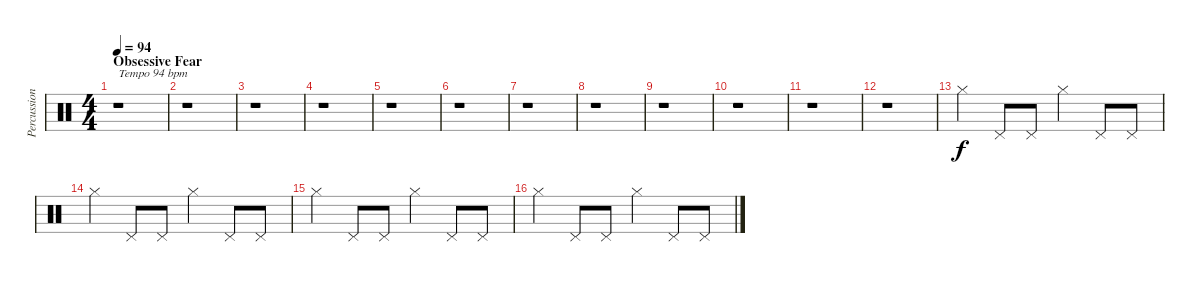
\track ("Percussion" "Percussion") {instrument percussion}
\staff {score}
\articulation defaults
\ts (4 4)
\section ("" "Obsessive Fear")
\tempo 94
\clef neutral
\ks c
r.1{txt "Tempo 94 bpm" dy f} |
r.1 |
r.1 |
r.1 |
r.1 |
r.1 |
r.1 |
r.1 |
r.1 |
r.1 |
r.1 |
r.1 |
"Hi-Hat (closed)".4{volume 5} "Pedal Hi-Hat (hit)".8 "Pedal Hi-Hat (hit)".8 "Hi-Hat (closed)".4 "Pedal Hi-Hat (hit)".8 "Pedal Hi-Hat (hit)".8 |
"Hi-Hat (closed)".4 "Pedal Hi-Hat (hit)".8 "Pedal Hi-Hat (hit)".8 "Hi-Hat (closed)".4 "Pedal Hi-Hat (hit)".8 "Pedal Hi-Hat (hit)".8 |
"Hi-Hat (closed)".4 "Pedal Hi-Hat (hit)".8 "Pedal Hi-Hat (hit)".8 "Hi-Hat (closed)".4 "Pedal Hi-Hat (hit)".8 "Pedal Hi-Hat (hit)".8 |
"Hi-Hat (closed)".4 "Pedal Hi-Hat (hit)".8 "Pedal Hi-Hat (hit)".8 "Hi-Hat (closed)".4 "Pedal Hi-Hat (hit)".8 "Pedal Hi-Hat (hit)".8
